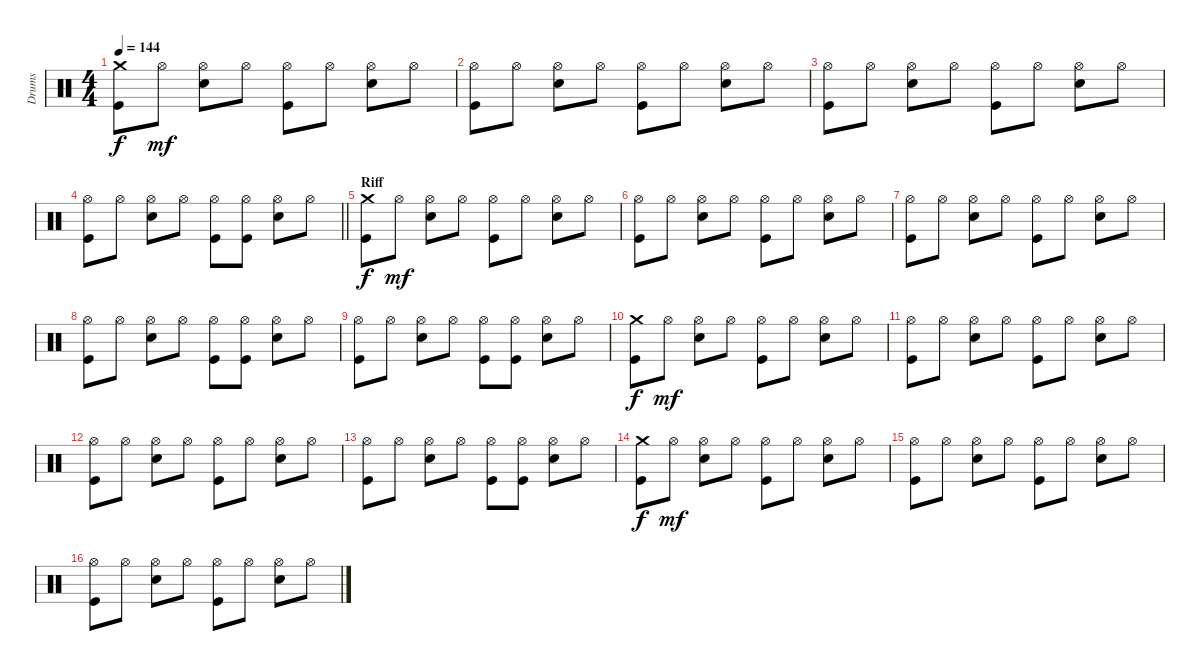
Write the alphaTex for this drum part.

\track ("Drums" "Drums") {instrument percussion}
\staff {score}
\articulation defaults
\ts (4 4)
\tempo 144
\clef neutral
\ks c
("Crash medium (hit)" "Kick (hit)").8{dy f} "Hi-Hat (open)".8{dy mf} ("Hi-Hat (open)" "Snare (hit) 2").8 "Hi-Hat (open)".8 ("Hi-Hat (open)" "Kick (hit)").8 "Hi-Hat (open)".8 ("Hi-Hat (open)" "Snare (hit) 2").8 "Hi-Hat (open)".8 |
("Hi-Hat (open)" "Kick (hit)").8 "Hi-Hat (open)".8 ("Hi-Hat (open)" "Snare (hit) 2").8 "Hi-Hat (open)".8 ("Hi-Hat (open)" "Kick (hit)").8 "Hi-Hat (open)".8 ("Hi-Hat (open)" "Snare (hit) 2").8 "Hi-Hat (open)".8 |
("Hi-Hat (open)" "Kick (hit)").8 "Hi-Hat (open)".8 ("Hi-Hat (open)" "Snare (hit) 2").8 "Hi-Hat (open)".8 ("Hi-Hat (open)" "Kick (hit)").8 "Hi-Hat (open)".8 ("Hi-Hat (open)" "Snare (hit) 2").8 "Hi-Hat (open)".8 |
\barLineRight lightlight
("Hi-Hat (open)" "Kick (hit)").8 "Hi-Hat (open)".8 ("Hi-Hat (open)" "Snare (hit) 2").8 "Hi-Hat (open)".8 ("Hi-Hat (open)" "Kick (hit)").8 ("Hi-Hat (open)" "Kick (hit)").8 ("Hi-Hat (open)" "Snare (hit) 2").8 "Hi-Hat (open)".8 |
\section ("" "Riff")
("Crash medium (hit)" "Kick (hit)").8{dy f} "Hi-Hat (open)".8{dy mf} ("Hi-Hat (open)" "Snare (hit) 2").8 "Hi-Hat (open)".8 ("Hi-Hat (open)" "Kick (hit)").8 "Hi-Hat (open)".8 ("Hi-Hat (open)" "Snare (hit) 2").8 "Hi-Hat (open)".8 |
("Hi-Hat (open)" "Kick (hit)").8 "Hi-Hat (open)".8 ("Hi-Hat (open)" "Snare (hit) 2").8 "Hi-Hat (open)".8 ("Hi-Hat (open)" "Kick (hit)").8 "Hi-Hat (open)".8 ("Hi-Hat (open)" "Snare (hit) 2").8 "Hi-Hat (open)".8 |
("Hi-Hat (open)" "Kick (hit)").8 "Hi-Hat (open)".8 ("Hi-Hat (open)" "Snare (hit) 2").8 "Hi-Hat (open)".8 ("Hi-Hat (open)" "Kick (hit)").8 "Hi-Hat (open)".8 ("Hi-Hat (open)" "Snare (hit) 2").8 "Hi-Hat (open)".8 |
("Hi-Hat (open)" "Kick (hit)").8 "Hi-Hat (open)".8 ("Hi-Hat (open)" "Snare (hit) 2").8 "Hi-Hat (open)".8 ("Hi-Hat (open)" "Kick (hit)").8 ("Hi-Hat (open)" "Kick (hit)").8 ("Hi-Hat (open)" "Snare (hit) 2").8 "Hi-Hat (open)".8 |
("Hi-Hat (open)" "Kick (hit)").8 "Hi-Hat (open)".8 ("Hi-Hat (open)" "Snare (hit) 2").8 "Hi-Hat (open)".8 ("Hi-Hat (open)" "Kick (hit)").8 ("Hi-Hat (open)" "Kick (hit)").8 ("Hi-Hat (open)" "Snare (hit) 2").8 "Hi-Hat (open)".8 |
("Crash medium (hit)" "Kick (hit)").8{dy f} "Hi-Hat (open)".8{dy mf} ("Hi-Hat (open)" "Snare (hit) 2").8 "Hi-Hat (open)".8 ("Hi-Hat (open)" "Kick (hit)").8 "Hi-Hat (open)".8 ("Hi-Hat (open)" "Snare (hit) 2").8 "Hi-Hat (open)".8 |
("Hi-Hat (open)" "Kick (hit)").8 "Hi-Hat (open)".8 ("Hi-Hat (open)" "Snare (hit) 2").8 "Hi-Hat (open)".8 ("Hi-Hat (open)" "Kick (hit)").8 "Hi-Hat (open)".8 ("Hi-Hat (open)" "Snare (hit) 2").8 "Hi-Hat (open)".8 |
("Hi-Hat (open)" "Kick (hit)").8 "Hi-Hat (open)".8 ("Hi-Hat (open)" "Snare (hit) 2").8 "Hi-Hat (open)".8 ("Hi-Hat (open)" "Kick (hit)").8 "Hi-Hat (open)".8 ("Hi-Hat (open)" "Snare (hit) 2").8 "Hi-Hat (open)".8 |
("Hi-Hat (open)" "Kick (hit)").8 "Hi-Hat (open)".8 ("Hi-Hat (open)" "Snare (hit) 2").8 "Hi-Hat (open)".8 ("Hi-Hat (open)" "Kick (hit)").8 ("Hi-Hat (open)" "Kick (hit)").8 ("Hi-Hat (open)" "Snare (hit) 2").8 "Hi-Hat (open)".8 |
("Crash medium (hit)" "Kick (hit)").8{dy f} "Hi-Hat (open)".8{dy mf} ("Hi-Hat (open)" "Snare (hit) 2").8 "Hi-Hat (open)".8 ("Hi-Hat (open)" "Kick (hit)").8 "Hi-Hat (open)".8 ("Hi-Hat (open)" "Snare (hit) 2").8 "Hi-Hat (open)".8 |
("Hi-Hat (open)" "Kick (hit)").8 "Hi-Hat (open)".8 ("Hi-Hat (open)" "Snare (hit) 2").8 "Hi-Hat (open)".8 ("Hi-Hat (open)" "Kick (hit)").8 "Hi-Hat (open)".8 ("Hi-Hat (open)" "Snare (hit) 2").8 "Hi-Hat (open)".8 |
("Hi-Hat (open)" "Kick (hit)").8 "Hi-Hat (open)".8 ("Hi-Hat (open)" "Snare (hit) 2").8 "Hi-Hat (open)".8 ("Hi-Hat (open)" "Kick (hit)").8 "Hi-Hat (open)".8 ("Hi-Hat (open)" "Snare (hit) 2").8 "Hi-Hat (open)".8
